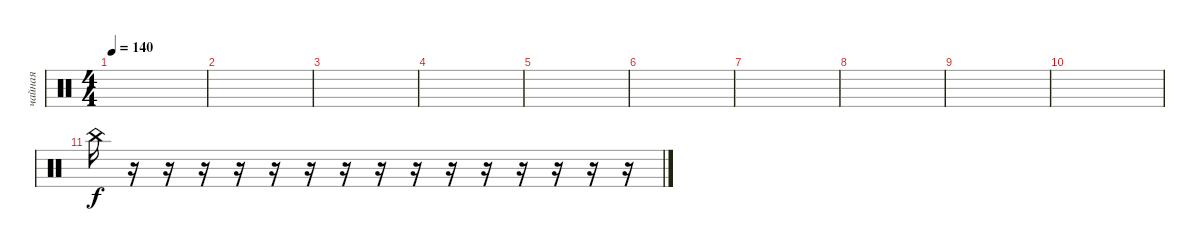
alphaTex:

\track ("чайная" "чайная") {mute instrument percussion}
\staff {score}
\articulation defaults
\ts (4 4)
\tempo 140
\clef neutral
\ks c
|
|
|
|
|
|
|
|
|
|
"China (hit)".16 r.16 r.16 r.16 r.16 r.16 r.16 r.16 r.16 r.16 r.16 r.16 r.16 r.16 r.16 r.16
